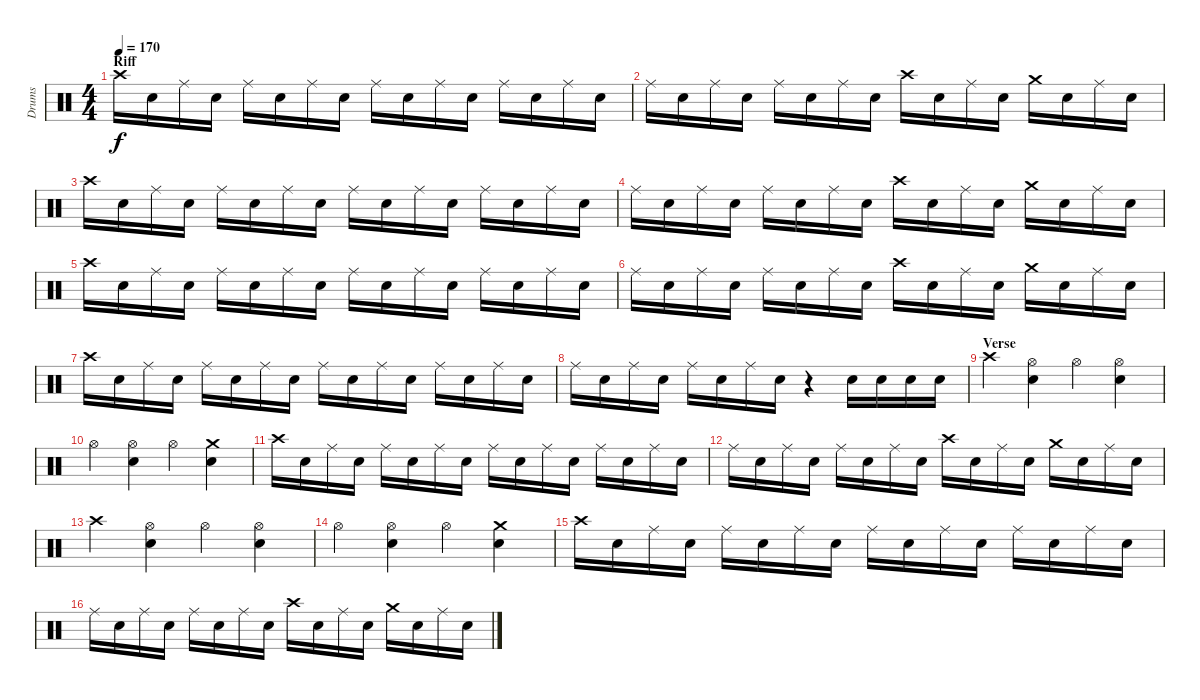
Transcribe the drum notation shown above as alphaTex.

\track ("Drums" "Drums") {instrument percussion}
\staff {score}
\articulation defaults
\ts (4 4)
\section ("" "Riff")
\tempo 170
\clef neutral
\ks c "Crash high (hit)".16{dy f} "Electric Snare (hit)".16 "Ride (middle)".16 "Electric Snare (hit)".16 "Ride (middle)".16 "Electric Snare (hit)".16 "Ride (middle)".16 "Electric Snare (hit)".16 "Ride (middle)".16 "Electric Snare (hit)".16 "Ride (middle)".16 "Electric Snare (hit)".16 "Ride (middle)".16 "Electric Snare (hit)".16 "Ride (middle)".16 "Electric Snare (hit)".16
|
"Ride (middle)".16 "Electric Snare (hit)".16 "Ride (middle)".16 "Electric Snare (hit)".16 "Ride (middle)".16 "Electric Snare (hit)".16 "Ride (middle)".16 "Electric Snare (hit)".16 "Crash high (hit)".16 "Electric Snare (hit)".16 "Ride (middle)".16 "Electric Snare (hit)".16 "Crash medium (hit)".16 "Electric Snare (hit)".16 "Ride (middle)".16 "Electric Snare (hit)".16 |
"Crash high (hit)".16 "Electric Snare (hit)".16 "Ride (middle)".16 "Electric Snare (hit)".16 "Ride (middle)".16 "Electric Snare (hit)".16 "Ride (middle)".16 "Electric Snare (hit)".16 "Ride (middle)".16 "Electric Snare (hit)".16 "Ride (middle)".16 "Electric Snare (hit)".16 "Ride (middle)".16 "Electric Snare (hit)".16 "Ride (middle)".16 "Electric Snare (hit)".16 |
"Ride (middle)".16 "Electric Snare (hit)".16 "Ride (middle)".16 "Electric Snare (hit)".16 "Ride (middle)".16 "Electric Snare (hit)".16 "Ride (middle)".16 "Electric Snare (hit)".16 "Crash high (hit)".16 "Electric Snare (hit)".16 "Ride (middle)".16 "Electric Snare (hit)".16 "Crash medium (hit)".16 "Electric Snare (hit)".16 "Ride (middle)".16 "Electric Snare (hit)".16 |
"Crash high (hit)".16 "Electric Snare (hit)".16 "Ride (middle)".16 "Electric Snare (hit)".16 "Ride (middle)".16 "Electric Snare (hit)".16 "Ride (middle)".16 "Electric Snare (hit)".16 "Ride (middle)".16 "Electric Snare (hit)".16 "Ride (middle)".16 "Electric Snare (hit)".16 "Ride (middle)".16 "Electric Snare (hit)".16 "Ride (middle)".16 "Electric Snare (hit)".16 |
"Ride (middle)".16 "Electric Snare (hit)".16 "Ride (middle)".16 "Electric Snare (hit)".16 "Ride (middle)".16 "Electric Snare (hit)".16 "Ride (middle)".16 "Electric Snare (hit)".16 "Crash high (hit)".16 "Electric Snare (hit)".16 "Ride (middle)".16 "Electric Snare (hit)".16 "Crash medium (hit)".16 "Electric Snare (hit)".16 "Ride (middle)".16 "Electric Snare (hit)".16 |
"Crash high (hit)".16 "Electric Snare (hit)".16 "Ride (middle)".16 "Electric Snare (hit)".16 "Ride (middle)".16 "Electric Snare (hit)".16 "Ride (middle)".16 "Electric Snare (hit)".16 "Ride (middle)".16 "Electric Snare (hit)".16 "Ride (middle)".16 "Electric Snare (hit)".16 "Ride (middle)".16 "Electric Snare (hit)".16 "Ride (middle)".16 "Electric Snare (hit)".16 |
"Ride (middle)".16 "Electric Snare (hit)".16 "Ride (middle)".16 "Electric Snare (hit)".16 "Ride (middle)".16 "Electric Snare (hit)".16 "Ride (middle)".16 "Electric Snare (hit)".16 r.4 "Electric Snare (hit)".16 "Electric Snare (hit)".16 "Electric Snare (hit)".16 "Electric Snare (hit)".16 |
\section ("" "Verse")
"Crash high (hit)".4 ("Hi-Hat (open)" "Electric Snare (hit)").4 "Hi-Hat (open)".4 ("Hi-Hat (open)" "Electric Snare (hit)").4 |
"Hi-Hat (open)".4 ("Hi-Hat (open)" "Electric Snare (hit)").4 "Hi-Hat (open)".4 ("Crash medium (hit)" "Electric Snare (hit)").4 |
"Crash high (hit)".16 "Electric Snare (hit)".16 "Ride (middle)".16 "Electric Snare (hit)".16 "Ride (middle)".16 "Electric Snare (hit)".16 "Ride (middle)".16 "Electric Snare (hit)".16 "Ride (middle)".16 "Electric Snare (hit)".16 "Ride (middle)".16 "Electric Snare (hit)".16 "Ride (middle)".16 "Electric Snare (hit)".16 "Ride (middle)".16 "Electric Snare (hit)".16 |
"Ride (middle)".16 "Electric Snare (hit)".16 "Ride (middle)".16 "Electric Snare (hit)".16 "Ride (middle)".16 "Electric Snare (hit)".16 "Ride (middle)".16 "Electric Snare (hit)".16 "Crash high (hit)".16 "Electric Snare (hit)".16 "Ride (middle)".16 "Electric Snare (hit)".16 "Crash medium (hit)".16 "Electric Snare (hit)".16 "Ride (middle)".16 "Electric Snare (hit)".16 |
"Crash high (hit)".4 ("Hi-Hat (open)" "Electric Snare (hit)").4 "Hi-Hat (open)".4 ("Hi-Hat (open)" "Electric Snare (hit)").4 |
"Hi-Hat (open)".4 ("Hi-Hat (open)" "Electric Snare (hit)").4 "Hi-Hat (open)".4 ("Crash medium (hit)" "Electric Snare (hit)").4 |
"Crash high (hit)".16 "Electric Snare (hit)".16 "Ride (middle)".16 "Electric Snare (hit)".16 "Ride (middle)".16 "Electric Snare (hit)".16 "Ride (middle)".16 "Electric Snare (hit)".16 "Ride (middle)".16 "Electric Snare (hit)".16 "Ride (middle)".16 "Electric Snare (hit)".16 "Ride (middle)".16 "Electric Snare (hit)".16 "Ride (middle)".16 "Electric Snare (hit)".16 |
"Ride (middle)".16 "Electric Snare (hit)".16 "Ride (middle)".16 "Electric Snare (hit)".16 "Ride (middle)".16 "Electric Snare (hit)".16 "Ride (middle)".16 "Electric Snare (hit)".16 "Crash high (hit)".16 "Electric Snare (hit)".16 "Ride (middle)".16 "Electric Snare (hit)".16 "Crash medium (hit)".16 "Electric Snare (hit)".16 "Ride (middle)".16 "Electric Snare (hit)".16
